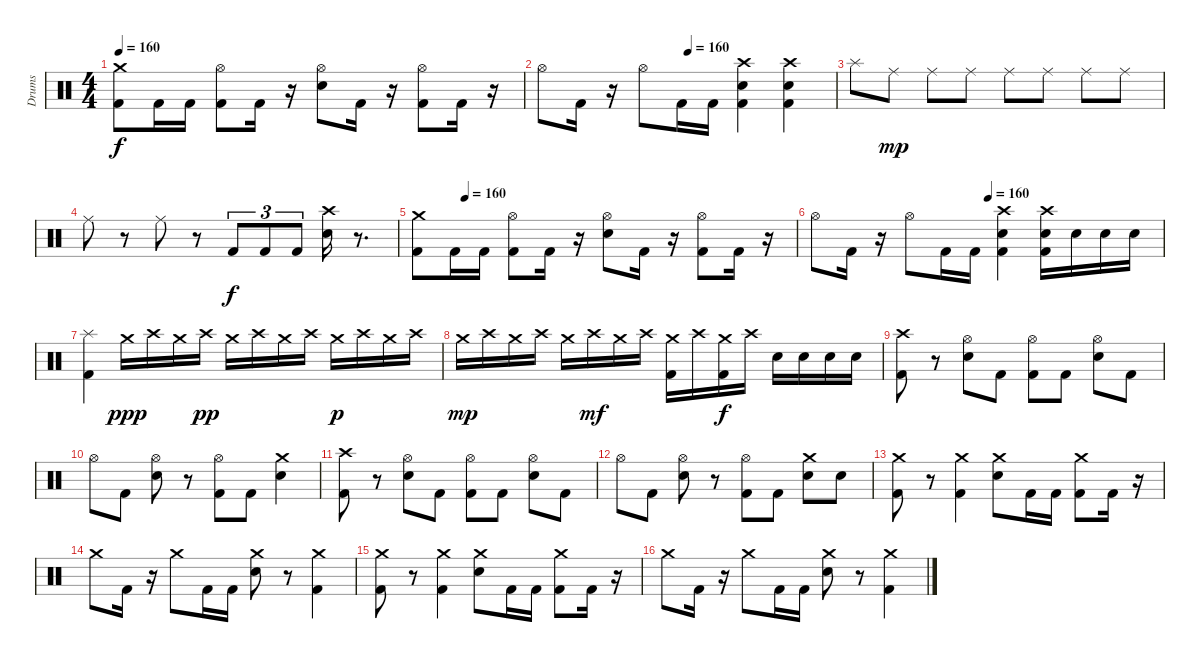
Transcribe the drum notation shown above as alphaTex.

\track ("Drums" "Drums") {instrument percussion}
\staff {score}
\articulation defaults
\ts (4 4)
\tempo 160
\clef neutral
\ks c
("Kick (hit) 2" "Crash medium (hit)").8{dy f} "Kick (hit) 2".16 "Kick (hit) 2".16 ("Kick (hit) 2" "Hi-Hat (open)").8 "Kick (hit) 2".16 r.16 ("Electric Snare (hit)" "Hi-Hat (open)").8 "Kick (hit) 2".16 r.16 ("Kick (hit) 2" "Hi-Hat (open)").8 "Kick (hit) 2".16 r.16 |
\tempo (160 0.5)
"Hi-Hat (open)".8 "Kick (hit) 2".16 r.16 "Hi-Hat (open)".8 "Kick (hit) 2".16 "Kick (hit) 2".16 ("Kick (hit) 2" "Electric Snare (hit)" "Crash high (hit)").4 ("Kick (hit) 2" "Electric Snare (hit)" "Crash high (hit)").4 |
"Splash (hit)".8 "Ride (middle)".8{dy mp} "Ride (middle)".8 "Ride (middle)".8 "Ride (middle)".8 "Ride (middle)".8 "Ride (middle)".8 "Ride (middle)".8 |
"Ride (middle)".8 r.8 "Ride (middle)".8 r.8 "Kick (hit) 2".8{tu (3 2) dy f} "Kick (hit) 2".8{tu (3 2)} "Kick (hit) 2".8{tu (3 2)} ("Electric Snare (hit)" "Crash high (hit)").16 r.8{d} |
\tempo (160 0.125)
("Kick (hit) 2" "Crash medium (hit)").8 "Kick (hit) 2".16 "Kick (hit) 2".16 ("Kick (hit) 2" "Hi-Hat (open)").8 "Kick (hit) 2".16 r.16 ("Electric Snare (hit)" "Hi-Hat (open)").8 "Kick (hit) 2".16 r.16 ("Kick (hit) 2" "Hi-Hat (open)").8 "Kick (hit) 2".16 r.16 |
\tempo (160 0.5)
"Hi-Hat (open)".8 "Kick (hit) 2".16 r.16 "Hi-Hat (open)".8 "Kick (hit) 2".16 "Kick (hit) 2".16 ("Kick (hit) 2" "Electric Snare (hit)" "Crash high (hit)").4 ("Kick (hit) 2" "Electric Snare (hit)" "Crash high (hit)").16 "Electric Snare (hit)".16 "Electric Snare (hit)".16 "Electric Snare (hit)".16 |
("Kick (hit) 2" "Splash (hit)").4 "Crash medium (hit)".16{dy ppp} "Crash high (hit)".16 "Crash medium (hit)".16 "Crash high (hit)".16{dy pp} "Crash medium (hit)".16 "Crash high (hit)".16 "Crash medium (hit)".16 "Crash high (hit)".16 "Crash medium (hit)".16{dy p} "Crash high (hit)".16 "Crash medium (hit)".16 "Crash high (hit)".16 |
"Crash medium (hit)".16{dy mp} "Crash high (hit)".16 "Crash medium (hit)".16 "Crash high (hit)".16 "Crash medium (hit)".16 "Crash high (hit)".16{dy mf} "Crash medium (hit)".16 "Crash high (hit)".16 ("Crash medium (hit)" "Kick (hit) 2").16 "Crash high (hit)".16 ("Crash medium (hit)" "Kick (hit) 2").16{dy f} "Crash high (hit)".16 "Electric Snare (hit)".16 "Electric Snare (hit)".16 "Electric Snare (hit)".16 "Electric Snare (hit)".16 |
("Kick (hit) 2" "Crash high (hit)").8 r.8 ("Electric Snare (hit)" "Hi-Hat (open)").8 "Kick (hit) 2".8 ("Kick (hit) 2" "Hi-Hat (open)").8 "Kick (hit) 2".8 ("Electric Snare (hit)" "Hi-Hat (open)").8 "Kick (hit) 2".8 |
"Hi-Hat (open)".8 "Kick (hit) 2".8 ("Electric Snare (hit)" "Hi-Hat (open)").8 r.8 ("Kick (hit) 2" "Hi-Hat (open)").8 "Kick (hit) 2".8 ("Electric Snare (hit)" "Crash medium (hit)").4 |
("Kick (hit) 2" "Crash high (hit)").8 r.8 ("Electric Snare (hit)" "Hi-Hat (open)").8 "Kick (hit) 2".8 ("Kick (hit) 2" "Hi-Hat (open)").8 "Kick (hit) 2".8 ("Electric Snare (hit)" "Hi-Hat (open)").8 "Kick (hit) 2".8 |
"Hi-Hat (open)".8 "Kick (hit) 2".8 ("Electric Snare (hit)" "Hi-Hat (open)").8 r.8 ("Kick (hit) 2" "Hi-Hat (open)").8 "Kick (hit) 2".8 ("Electric Snare (hit)" "Crash medium (hit)").8 "Electric Snare (hit)".8 |
("Kick (hit) 2" "Crash medium (hit)").8 r.8 ("Crash medium (hit)" "Kick (hit) 2").4 ("Electric Snare (hit)" "Crash medium (hit)").8 "Kick (hit) 2".16 "Kick (hit) 2".16 ("Crash medium (hit)" "Kick (hit) 2").8 "Kick (hit) 2".16 r.16 |
"Crash medium (hit)".8 "Kick (hit) 2".16 r.16 "Crash medium (hit)".8 "Kick (hit) 2".16 "Kick (hit) 2".16 ("Electric Snare (hit)" "Crash medium (hit)").8 r.8 ("Crash medium (hit)" "Kick (hit) 2").4 |
("Kick (hit) 2" "Crash medium (hit)").8 r.8 ("Crash medium (hit)" "Kick (hit) 2").4 ("Electric Snare (hit)" "Crash medium (hit)").8 "Kick (hit) 2".16 "Kick (hit) 2".16 ("Crash medium (hit)" "Kick (hit) 2").8 "Kick (hit) 2".16 r.16 |
"Crash medium (hit)".8 "Kick (hit) 2".16 r.16 "Crash medium (hit)".8 "Kick (hit) 2".16 "Kick (hit) 2".16 ("Electric Snare (hit)" "Crash medium (hit)").8 r.8 ("Crash medium (hit)" "Kick (hit) 2").4
